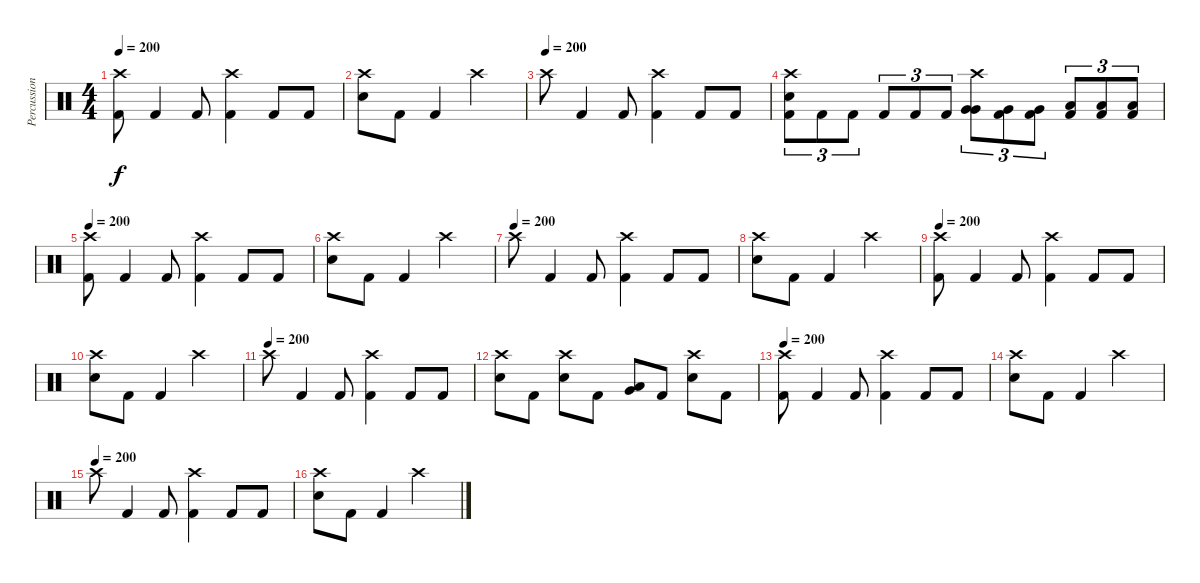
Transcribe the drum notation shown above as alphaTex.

\track ("Percussion" "Percussion") {instrument percussion}
\staff {score}
\articulation defaults
\ts (4 4)
\tempo 200
\clef neutral
\ks c
("Crash high (hit)" "Kick (hit) 2").8{dy f} "Kick (hit) 2".4 "Kick (hit) 2".8 ("Crash high (hit)" "Kick (hit) 2").4 "Kick (hit) 2".8 "Kick (hit) 2".8 |
("Crash high (hit)" "Electric Snare (hit)").8 "Kick (hit) 2".8 "Kick (hit) 2".4 "Crash high (hit)".2 |
\tempo (200)
"Crash high (hit)".8 "Kick (hit) 2".4 "Kick (hit) 2".8 ("Crash high (hit)" "Kick (hit) 2").4 "Kick (hit) 2".8 "Kick (hit) 2".8 |
("Crash high (hit)" "Electric Snare (hit)" "Kick (hit) 2").8{tu (3 2)} "Kick (hit) 2".8{tu (3 2)} "Kick (hit) 2".8{tu (3 2)} "Kick (hit) 2".8{tu (3 2)} "Kick (hit) 2".8{tu (3 2)} "Kick (hit) 2".8{tu (3 2)} ("Crash high (hit)" "Very Low Tom (hit)" "Very Low Tom (hit)").8{tu (3 2)} ("Very Low Tom (hit)" "Kick (hit) 2").8{tu (3 2)} ("Very Low Tom (hit)" "Kick (hit) 2").8{tu (3 2)} ("Low Tom (hit)" "Kick (hit) 2").8{tu (3 2)} ("Low Tom (hit)" "Kick (hit) 2").8{tu (3 2)} ("Low Tom (hit)" "Kick (hit) 2").8{tu (3 2)} |
\tempo 200
("Crash high (hit)" "Kick (hit) 2").8 "Kick (hit) 2".4 "Kick (hit) 2".8 ("Crash high (hit)" "Kick (hit) 2").4 "Kick (hit) 2".8 "Kick (hit) 2".8 |
("Crash high (hit)" "Electric Snare (hit)").8 "Kick (hit) 2".8 "Kick (hit) 2".4 "Crash high (hit)".2 |
\tempo (200)
"Crash high (hit)".8 "Kick (hit) 2".4 "Kick (hit) 2".8 ("Crash high (hit)" "Kick (hit) 2").4 "Kick (hit) 2".8 "Kick (hit) 2".8 |
("Crash high (hit)" "Electric Snare (hit)").8 "Kick (hit) 2".8 "Kick (hit) 2".4 "Crash high (hit)".2 |
\tempo 200
("Crash high (hit)" "Kick (hit) 2").8 "Kick (hit) 2".4 "Kick (hit) 2".8 ("Crash high (hit)" "Kick (hit) 2").4 "Kick (hit) 2".8 "Kick (hit) 2".8 |
("Crash high (hit)" "Electric Snare (hit)").8 "Kick (hit) 2".8 "Kick (hit) 2".4 "Crash high (hit)".2 |
\tempo (200)
"Crash high (hit)".8 "Kick (hit) 2".4 "Kick (hit) 2".8 ("Crash high (hit)" "Kick (hit) 2").4 "Kick (hit) 2".8 "Kick (hit) 2".8 |
("Crash high (hit)" "Electric Snare (hit)").8 "Kick (hit) 2".8 ("Crash high (hit)" "Electric Snare (hit)").8 "Kick (hit) 2".8 ("Low Floor Tom (hit)" "Very Low Tom (hit)").8 "Kick (hit) 2".8 ("Crash high (hit)" "Electric Snare (hit)").8 "Kick (hit) 2".8 |
\tempo 200
("Crash high (hit)" "Kick (hit) 2").8 "Kick (hit) 2".4 "Kick (hit) 2".8 ("Crash high (hit)" "Kick (hit) 2").4 "Kick (hit) 2".8 "Kick (hit) 2".8 |
("Crash high (hit)" "Electric Snare (hit)").8 "Kick (hit) 2".8 "Kick (hit) 2".4 "Crash high (hit)".2 |
\tempo (200)
"Crash high (hit)".8 "Kick (hit) 2".4 "Kick (hit) 2".8 ("Crash high (hit)" "Kick (hit) 2").4 "Kick (hit) 2".8 "Kick (hit) 2".8 |
("Crash high (hit)" "Electric Snare (hit)").8 "Kick (hit) 2".8 "Kick (hit) 2".4 "Crash high (hit)".2
